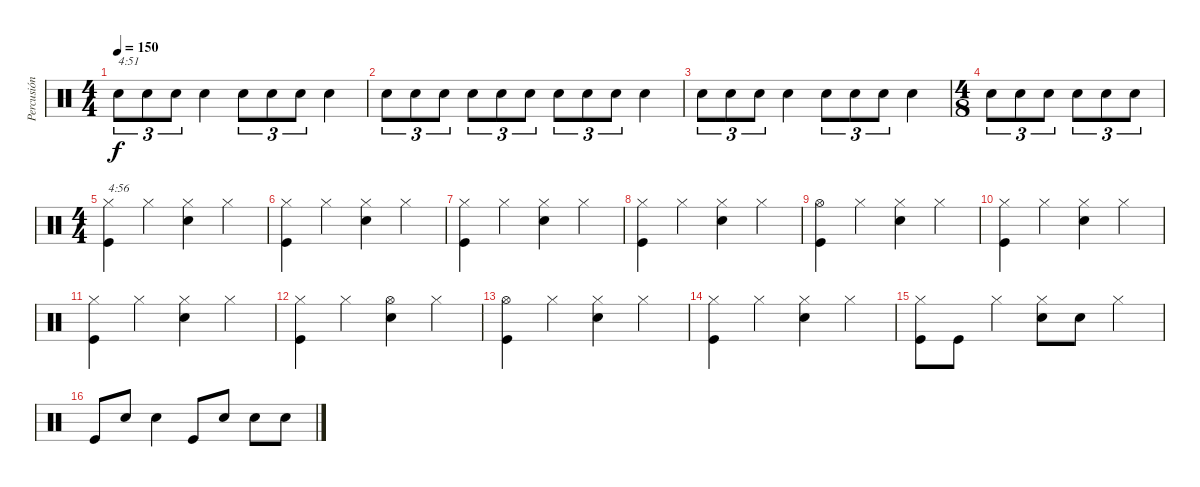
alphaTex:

\track ("Percusión" "Percusión") {instrument percussion}
\staff {score}
\articulation defaults
\ts (4 4)
\tempo 150
\clef neutral
\ks c "Snare (hit) 2".8{tu (3 2) txt "4:51" dy f} "Snare (hit) 2".8{tu (3 2)} "Snare (hit) 2".8{tu (3 2)} "Snare (hit) 2".4 "Snare (hit) 2".8{tu (3 2)} "Snare (hit) 2".8{tu (3 2)} "Snare (hit) 2".8{tu (3 2)} "Snare (hit) 2".4
|
"Snare (hit) 2".8{tu (3 2)} "Snare (hit) 2".8{tu (3 2)} "Snare (hit) 2".8{tu (3 2)} "Snare (hit) 2".8{tu (3 2)} "Snare (hit) 2".8{tu (3 2)} "Snare (hit) 2".8{tu (3 2)} "Snare (hit) 2".8{tu (3 2)} "Snare (hit) 2".8{tu (3 2)} "Snare (hit) 2".8{tu (3 2)} "Snare (hit) 2".4 |
"Snare (hit) 2".8{tu (3 2)} "Snare (hit) 2".8{tu (3 2)} "Snare (hit) 2".8{tu (3 2)} "Snare (hit) 2".4 "Snare (hit) 2".8{tu (3 2)} "Snare (hit) 2".8{tu (3 2)} "Snare (hit) 2".8{tu (3 2)} "Snare (hit) 2".4 |
\ts (4 8)
"Snare (hit) 2".8{tu (3 2)} "Snare (hit) 2".8{tu (3 2)} "Snare (hit) 2".8{tu (3 2)} "Snare (hit) 2".8{tu (3 2)} "Snare (hit) 2".8{tu (3 2)} "Snare (hit) 2".8{tu (3 2)} |
\ts (4 4)
("Kick (hit)" "Hi-Hat (closed)").4{txt "4:56"} "Hi-Hat (closed)".4 ("Snare (hit) 2" "Hi-Hat (closed)").4 "Hi-Hat (closed)".4 |
("Kick (hit)" "Hi-Hat (closed)").4 "Hi-Hat (closed)".4 ("Snare (hit) 2" "Hi-Hat (closed)").4 "Hi-Hat (closed)".4 |
("Kick (hit)" "Hi-Hat (closed)").4 "Hi-Hat (closed)".4 ("Snare (hit) 2" "Hi-Hat (closed)").4 "Hi-Hat (closed)".4 |
("Kick (hit)" "Hi-Hat (closed)").4 "Hi-Hat (closed)".4 ("Snare (hit) 2" "Hi-Hat (closed)").4 "Hi-Hat (closed)".4 |
("Kick (hit)" "Hi-Hat (open)").4 "Hi-Hat (closed)".4 ("Snare (hit) 2" "Hi-Hat (closed)").4 "Hi-Hat (closed)".4 |
("Kick (hit)" "Hi-Hat (closed)").4 "Hi-Hat (closed)".4 ("Snare (hit) 2" "Hi-Hat (closed)").4 "Hi-Hat (closed)".4 |
("Kick (hit)" "Hi-Hat (closed)").4 "Hi-Hat (closed)".4 ("Snare (hit) 2" "Hi-Hat (closed)").4 "Hi-Hat (closed)".4 |
("Kick (hit)" "Hi-Hat (closed)").4 "Hi-Hat (closed)".4 ("Snare (hit) 2" "Hi-Hat (open)").4 "Hi-Hat (closed)".4 |
("Kick (hit)" "Hi-Hat (open)").4 "Hi-Hat (closed)".4 ("Snare (hit) 2" "Hi-Hat (closed)").4 "Hi-Hat (closed)".4 |
("Kick (hit)" "Hi-Hat (closed)").4 "Hi-Hat (closed)".4 ("Snare (hit) 2" "Hi-Hat (closed)").4 "Hi-Hat (closed)".4 |
("Kick (hit)" "Hi-Hat (closed)").8 "Kick (hit)".8 "Hi-Hat (closed)".4 ("Snare (hit) 2" "Hi-Hat (closed)").8 "Snare (hit) 2".8 "Hi-Hat (closed)".4 |
"Kick (hit)".8 "Snare (hit) 2".8 "Snare (hit) 2".4 "Kick (hit)".8 "Snare (hit) 2".8 "Snare (hit) 2".8 "Snare (hit) 2".8
